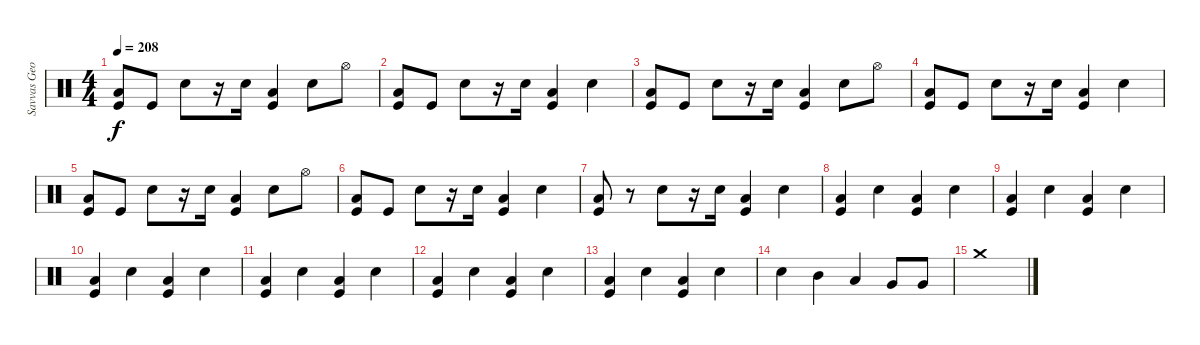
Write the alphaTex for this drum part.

\track ("Savvas Georgiadis" "Savvas Geo") {instrument percussion}
\staff {score}
\articulation defaults
\ts (4 4)
\tempo 208
\clef neutral
\ks c
("Low Tom (hit)" "Kick (hit)").8{dy f} "Kick (hit)".8 "Electric Snare (hit)".8 r.16 "Electric Snare (hit)".16 ("Low Tom (hit)" "Kick (hit)").4 "Electric Snare (hit)".8 "Hi-Hat (open)".8 |
("Low Tom (hit)" "Kick (hit)").8 "Kick (hit)".8 "Electric Snare (hit)".8 r.16 "Electric Snare (hit)".16 ("Low Tom (hit)" "Kick (hit)").4 "Electric Snare (hit)".4 |
("Low Tom (hit)" "Kick (hit)").8 "Kick (hit)".8 "Electric Snare (hit)".8 r.16 "Electric Snare (hit)".16 ("Low Tom (hit)" "Kick (hit)").4 "Electric Snare (hit)".8 "Hi-Hat (open)".8 |
("Low Tom (hit)" "Kick (hit)").8 "Kick (hit)".8 "Electric Snare (hit)".8 r.16 "Electric Snare (hit)".16 ("Low Tom (hit)" "Kick (hit)").4 "Electric Snare (hit)".4 |
("Low Tom (hit)" "Kick (hit)").8 "Kick (hit)".8 "Electric Snare (hit)".8 r.16 "Electric Snare (hit)".16 ("Low Tom (hit)" "Kick (hit)").4 "Electric Snare (hit)".8 "Hi-Hat (open)".8 |
("Low Tom (hit)" "Kick (hit)").8 "Kick (hit)".8 "Electric Snare (hit)".8 r.16 "Electric Snare (hit)".16 ("Low Tom (hit)" "Kick (hit)").4 "Electric Snare (hit)".4 |
("Low Tom (hit)" "Kick (hit)").8 r.8 "Electric Snare (hit)".8 r.16 "Electric Snare (hit)".16 ("Low Tom (hit)" "Kick (hit)").4 "Electric Snare (hit)".4 |
("Low Tom (hit)" "Kick (hit)").4 "Electric Snare (hit)".4 ("Low Tom (hit)" "Kick (hit)").4 "Electric Snare (hit)".4 |
("Low Tom (hit)" "Kick (hit)").4 "Electric Snare (hit)".4 ("Low Tom (hit)" "Kick (hit)").4 "Electric Snare (hit)".4 |
("Low Tom (hit)" "Kick (hit)").4 "Electric Snare (hit)".4 ("Low Tom (hit)" "Kick (hit)").4 "Electric Snare (hit)".4 |
("Low Tom (hit)" "Kick (hit)").4 "Electric Snare (hit)".4 ("Low Tom (hit)" "Kick (hit)").4 "Electric Snare (hit)".4 |
("Low Tom (hit)" "Kick (hit)").4 "Electric Snare (hit)".4 ("Low Tom (hit)" "Kick (hit)").4 "Electric Snare (hit)".4 |
("Low Tom (hit)" "Kick (hit)").4 "Electric Snare (hit)".4 ("Low Tom (hit)" "Kick (hit)").4 "Electric Snare (hit)".4 |
"Electric Snare (hit)".4 "Mid Tom (hit)".4 "Low Tom (hit)".4 "Very Low Tom (hit)".8 "Very Low Tom (hit)".8 |
"Crash medium (hit)".1
